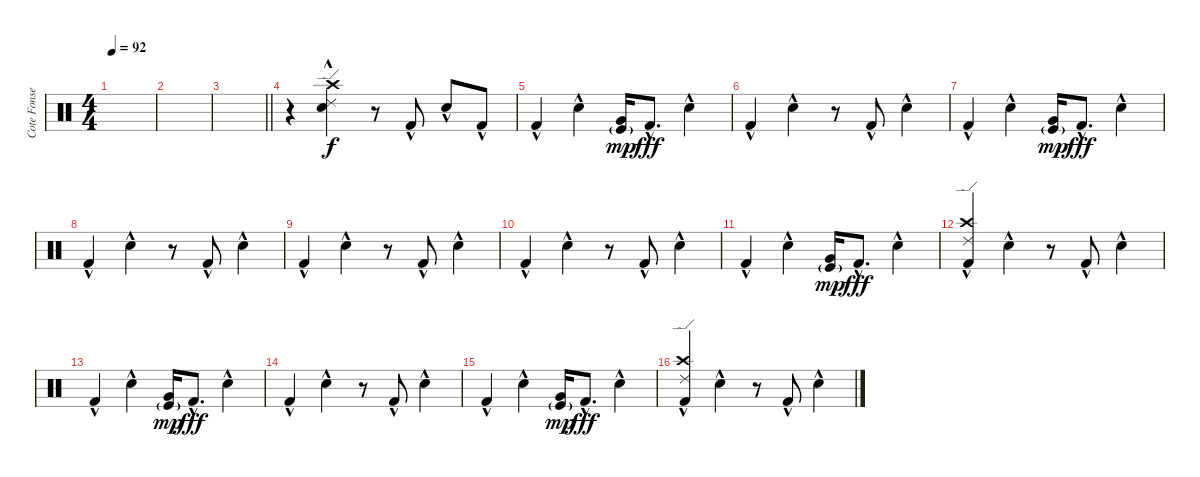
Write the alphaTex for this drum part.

\track ("Cote Fonsea" "Cote Fonse") {instrument percussion}
\staff {score}
\articulation defaults
\ts (4 4)
\tempo 92
\clef neutral
\ks c
|
|
\barLineRight lightlight
|
r.4 ("Ride (edge) 2" "Crash high (hit)"{hac} "Snare (hit) 2"{hac}).4 r.8 "Kick (hit) 2"{hac}.8 "Snare (hit) 2"{hac}.8 "Kick (hit) 2"{hac}.8 |
"Kick (hit) 2"{hac}.4 "Snare (hit) 2"{hac}.4 ("Very Low Tom (hit)" "Kick (hit)"{g}).16{dy mp} "Kick (hit) 2"{hac}.8{d dy fff} "Snare (hit) 2"{hac}.4 |
"Kick (hit) 2"{hac}.4 "Snare (hit) 2"{hac}.4 r.8 "Kick (hit) 2"{hac}.8 "Snare (hit) 2"{hac}.4 |
"Kick (hit) 2"{hac}.4 "Snare (hit) 2"{hac}.4 ("Very Low Tom (hit)" "Kick (hit)"{g}).16{dy mp} "Kick (hit) 2"{hac}.8{d dy fff} "Snare (hit) 2"{hac}.4 |
"Kick (hit) 2"{hac}.4 "Snare (hit) 2"{hac}.4 r.8 "Kick (hit) 2"{hac}.8 "Snare (hit) 2"{hac}.4 |
"Kick (hit) 2"{hac}.4 "Snare (hit) 2"{hac}.4 r.8 "Kick (hit) 2"{hac}.8 "Snare (hit) 2"{hac}.4 |
"Kick (hit) 2"{hac}.4 "Snare (hit) 2"{hac}.4 r.8 "Kick (hit) 2"{hac}.8 "Snare (hit) 2"{hac}.4 |
"Kick (hit) 2"{hac}.4 "Snare (hit) 2"{hac}.4 ("Very Low Tom (hit)" "Kick (hit)"{g}).16{dy mp} "Kick (hit) 2"{hac}.8{d dy fff} "Snare (hit) 2"{hac}.4 |
("Ride (edge) 2" "Crash high (hit)" "Kick (hit) 2"{hac}).4 "Snare (hit) 2"{hac}.4 r.8 "Kick (hit) 2"{hac}.8 "Snare (hit) 2"{hac}.4 |
"Kick (hit) 2"{hac}.4 "Snare (hit) 2"{hac}.4 ("Very Low Tom (hit)" "Kick (hit)"{g}).16{dy mp} "Kick (hit) 2"{hac}.8{d dy fff} "Snare (hit) 2"{hac}.4 |
"Kick (hit) 2"{hac}.4 "Snare (hit) 2"{hac}.4 r.8 "Kick (hit) 2"{hac}.8 "Snare (hit) 2"{hac}.4 |
"Kick (hit) 2"{hac}.4 "Snare (hit) 2"{hac}.4 ("Very Low Tom (hit)" "Kick (hit)"{g}).16{dy mp} "Kick (hit) 2"{hac}.8{d dy fff} "Snare (hit) 2"{hac}.4 |
("Ride (edge) 2" "Crash high (hit)" "Kick (hit) 2"{hac}).4 "Snare (hit) 2"{hac}.4 r.8 "Kick (hit) 2"{hac}.8 "Snare (hit) 2"{hac}.4
